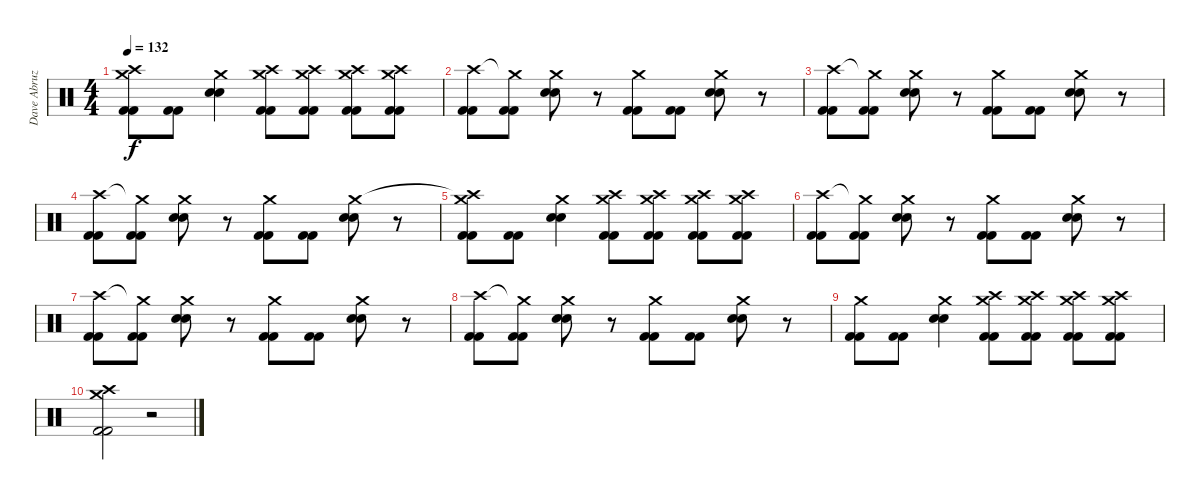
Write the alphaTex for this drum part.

\track ("Dave Abruzzesse" "Dave Abruz") {instrument percussion}
\staff {score}
\articulation defaults
\ts (4 4)
\tempo 132
\clef neutral
\ks c
("Crash high (hit)"{t} "Crash medium (hit)" "Kick (hit) 2" "Kick (hit) 2").8{dy f} ("Kick (hit) 2" "Kick (hit) 2").8 ("Crash medium (hit)" "Snare (hit) 2" "Snare (hit) 2").4 ("Crash high (hit)" "Crash medium (hit)" "Kick (hit) 2" "Kick (hit) 2").8 ("Crash high (hit)" "Crash medium (hit)" "Kick (hit) 2" "Kick (hit) 2").8 ("Crash high (hit)" "Crash medium (hit)" "Kick (hit) 2" "Kick (hit) 2").8 ("Crash high (hit)" "Crash medium (hit)" "Kick (hit) 2" "Kick (hit) 2").8 |
("Crash high (hit)" "Kick (hit) 2" "Kick (hit) 2").8 ("Crash medium (hit)"{t} "Kick (hit) 2" "Kick (hit) 2").8 ("Crash medium (hit)" "Snare (hit) 2" "Snare (hit) 2").8 r.8 ("Crash medium (hit)" "Kick (hit) 2" "Kick (hit) 2").8 ("Kick (hit) 2" "Kick (hit) 2").8 ("Crash medium (hit)" "Snare (hit) 2" "Snare (hit) 2").8 r.8 |
("Crash high (hit)" "Kick (hit) 2" "Kick (hit) 2").8 ("Crash medium (hit)"{t} "Kick (hit) 2" "Kick (hit) 2").8 ("Crash medium (hit)" "Snare (hit) 2" "Snare (hit) 2").8 r.8 ("Crash medium (hit)" "Kick (hit) 2" "Kick (hit) 2").8 ("Kick (hit) 2" "Kick (hit) 2").8 ("Crash medium (hit)" "Snare (hit) 2" "Snare (hit) 2").8 r.8 |
("Crash high (hit)" "Kick (hit) 2" "Kick (hit) 2").8 ("Crash medium (hit)"{t} "Kick (hit) 2" "Kick (hit) 2").8 ("Crash medium (hit)" "Snare (hit) 2" "Snare (hit) 2").8 r.8 ("Crash medium (hit)" "Kick (hit) 2" "Kick (hit) 2").8 ("Kick (hit) 2" "Kick (hit) 2").8 ("Crash medium (hit)" "Snare (hit) 2" "Snare (hit) 2").8 r.8 |
("Crash high (hit)"{t} "Crash medium (hit)" "Kick (hit) 2" "Kick (hit) 2").8 ("Kick (hit) 2" "Kick (hit) 2").8 ("Crash medium (hit)" "Snare (hit) 2" "Snare (hit) 2").4 ("Crash high (hit)" "Crash medium (hit)" "Kick (hit) 2" "Kick (hit) 2").8 ("Crash high (hit)" "Crash medium (hit)" "Kick (hit) 2" "Kick (hit) 2").8 ("Crash high (hit)" "Crash medium (hit)" "Kick (hit) 2" "Kick (hit) 2").8 ("Crash high (hit)" "Crash medium (hit)" "Kick (hit) 2" "Kick (hit) 2").8 |
("Crash high (hit)" "Kick (hit) 2" "Kick (hit) 2").8 ("Crash medium (hit)"{t} "Kick (hit) 2" "Kick (hit) 2").8 ("Crash medium (hit)" "Snare (hit) 2" "Snare (hit) 2").8 r.8 ("Crash medium (hit)" "Kick (hit) 2" "Kick (hit) 2").8 ("Kick (hit) 2" "Kick (hit) 2").8 ("Crash medium (hit)" "Snare (hit) 2" "Snare (hit) 2").8 r.8 |
("Crash high (hit)" "Kick (hit) 2" "Kick (hit) 2").8 ("Crash medium (hit)"{t} "Kick (hit) 2" "Kick (hit) 2").8 ("Crash medium (hit)" "Snare (hit) 2" "Snare (hit) 2").8 r.8 ("Crash medium (hit)" "Kick (hit) 2" "Kick (hit) 2").8 ("Kick (hit) 2" "Kick (hit) 2").8 ("Crash medium (hit)" "Snare (hit) 2" "Snare (hit) 2").8 r.8 |
("Crash high (hit)" "Kick (hit) 2" "Kick (hit) 2").8 ("Crash medium (hit)"{t} "Kick (hit) 2" "Kick (hit) 2").8 ("Crash medium (hit)" "Snare (hit) 2" "Snare (hit) 2").8 r.8 ("Crash medium (hit)" "Kick (hit) 2" "Kick (hit) 2").8 ("Kick (hit) 2" "Kick (hit) 2").8 ("Crash medium (hit)" "Snare (hit) 2" "Snare (hit) 2").8 r.8 |
("Crash medium (hit)" "Kick (hit) 2" "Kick (hit) 2").8 ("Kick (hit) 2" "Kick (hit) 2").8 ("Crash medium (hit)" "Snare (hit) 2" "Snare (hit) 2").4 ("Crash high (hit)" "Crash medium (hit)" "Kick (hit) 2" "Kick (hit) 2").8 ("Crash high (hit)" "Crash medium (hit)" "Kick (hit) 2" "Kick (hit) 2").8 ("Crash high (hit)" "Crash medium (hit)" "Kick (hit) 2" "Kick (hit) 2").8 ("Crash high (hit)" "Crash medium (hit)" "Kick (hit) 2" "Kick (hit) 2").8 |
("Crash high (hit)" "Crash medium (hit)" "Kick (hit) 2" "Kick (hit) 2").2 r.2
